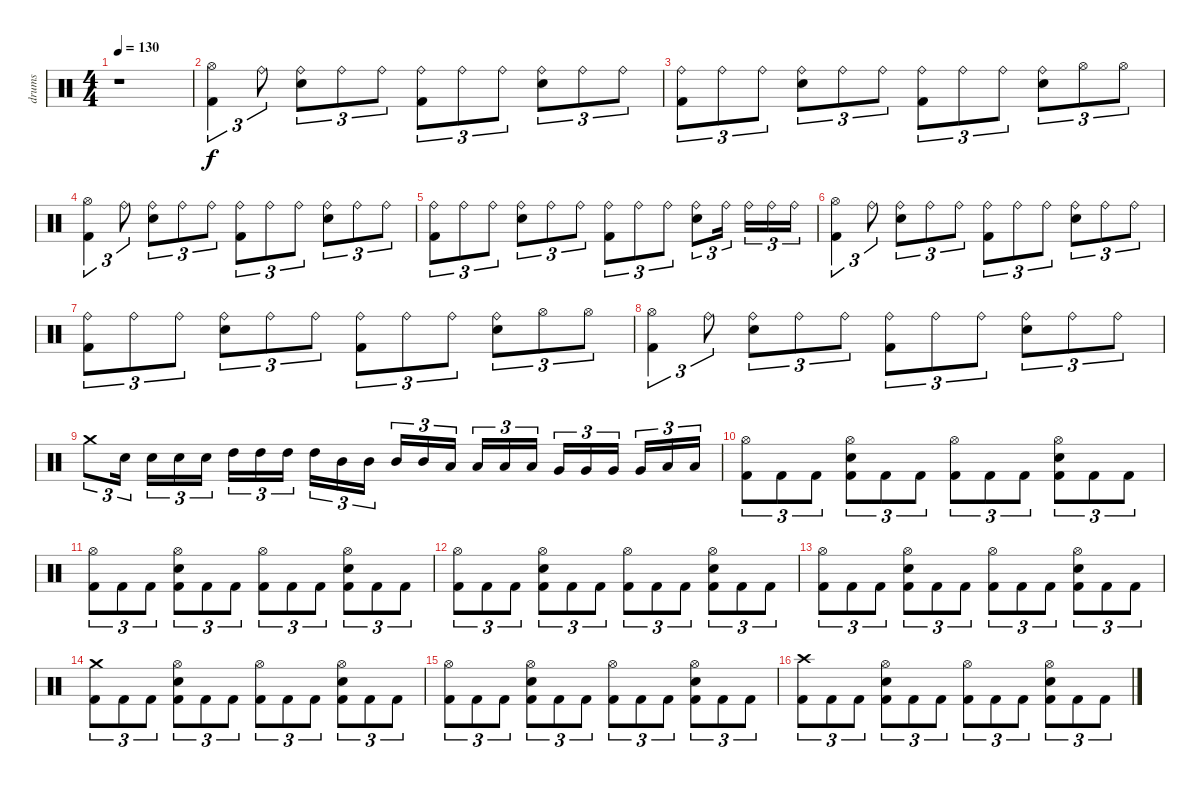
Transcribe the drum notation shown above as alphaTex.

\track ("drums" "drums") {instrument percussion}
\staff {score}
\articulation defaults
\ts (4 4)
\tempo 130
\clef neutral
\ks c
r.1{dy f} |
("Hi-Hat (open)" "Kick (hit) 2").4{tu (3 2)} "Ride (bell)".8{tu (3 2)} ("Ride (bell)" "Electric Snare (hit)").8{tu (3 2)} "Ride (bell)".8{tu (3 2)} "Ride (bell)".8{tu (3 2)} ("Ride (bell)" "Kick (hit) 2").8{tu (3 2)} "Ride (bell)".8{tu (3 2)} "Ride (bell)".8{tu (3 2)} ("Ride (bell)" "Electric Snare (hit)").8{tu (3 2)} "Ride (bell)".8{tu (3 2)} "Ride (bell)".8{tu (3 2)} |
("Ride (bell)" "Kick (hit) 2").8{tu (3 2)} "Ride (bell)".8{tu (3 2)} "Ride (bell)".8{tu (3 2)} ("Ride (bell)" "Electric Snare (hit)").8{tu (3 2)} "Ride (bell)".8{tu (3 2)} "Ride (bell)".8{tu (3 2)} ("Ride (bell)" "Kick (hit) 2").8{tu (3 2)} "Ride (bell)".8{tu (3 2)} "Ride (bell)".8{tu (3 2)} ("Ride (bell)" "Electric Snare (hit)").8{tu (3 2)} "Hi-Hat (open)".8{tu (3 2)} "Hi-Hat (open)".8{tu (3 2)} |
("Hi-Hat (open)" "Kick (hit) 2").4{tu (3 2)} "Ride (bell)".8{tu (3 2)} ("Ride (bell)" "Electric Snare (hit)").8{tu (3 2)} "Ride (bell)".8{tu (3 2)} "Ride (bell)".8{tu (3 2)} ("Ride (bell)" "Kick (hit) 2").8{tu (3 2)} "Ride (bell)".8{tu (3 2)} "Ride (bell)".8{tu (3 2)} ("Ride (bell)" "Electric Snare (hit)").8{tu (3 2)} "Ride (bell)".8{tu (3 2)} "Ride (bell)".8{tu (3 2)} |
("Ride (bell)" "Kick (hit) 2").8{tu (3 2)} "Ride (bell)".8{tu (3 2)} "Ride (bell)".8{tu (3 2)} ("Ride (bell)" "Electric Snare (hit)").8{tu (3 2)} "Ride (bell)".8{tu (3 2)} "Ride (bell)".8{tu (3 2)} ("Ride (bell)" "Kick (hit) 2").8{tu (3 2)} "Ride (bell)".8{tu (3 2)} "Ride (bell)".8{tu (3 2)} ("Ride (bell)" "Electric Snare (hit)").8{tu (3 2)} "Ride (bell)".16{tu (3 2)} "Ride (bell)".16{tu (3 2)} "Ride (bell)".16{tu (3 2)} "Ride (bell)".16{tu (3 2)} |
("Hi-Hat (open)" "Kick (hit) 2").4{tu (3 2)} "Ride (bell)".8{tu (3 2)} ("Ride (bell)" "Electric Snare (hit)").8{tu (3 2)} "Ride (bell)".8{tu (3 2)} "Ride (bell)".8{tu (3 2)} ("Ride (bell)" "Kick (hit) 2").8{tu (3 2)} "Ride (bell)".8{tu (3 2)} "Ride (bell)".8{tu (3 2)} ("Ride (bell)" "Electric Snare (hit)").8{tu (3 2)} "Ride (bell)".8{tu (3 2)} "Ride (bell)".8{tu (3 2)} |
("Ride (bell)" "Kick (hit) 2").8{tu (3 2)} "Ride (bell)".8{tu (3 2)} "Ride (bell)".8{tu (3 2)} ("Ride (bell)" "Electric Snare (hit)").8{tu (3 2)} "Ride (bell)".8{tu (3 2)} "Ride (bell)".8{tu (3 2)} ("Ride (bell)" "Kick (hit) 2").8{tu (3 2)} "Ride (bell)".8{tu (3 2)} "Ride (bell)".8{tu (3 2)} ("Ride (bell)" "Electric Snare (hit)").8{tu (3 2)} "Hi-Hat (open)".8{tu (3 2)} "Hi-Hat (open)".8{tu (3 2)} |
("Hi-Hat (open)" "Kick (hit) 2").4{tu (3 2)} "Ride (bell)".8{tu (3 2)} ("Ride (bell)" "Electric Snare (hit)").8{tu (3 2)} "Ride (bell)".8{tu (3 2)} "Ride (bell)".8{tu (3 2)} ("Ride (bell)" "Kick (hit) 2").8{tu (3 2)} "Ride (bell)".8{tu (3 2)} "Ride (bell)".8{tu (3 2)} ("Ride (bell)" "Electric Snare (hit)").8{tu (3 2)} "Ride (bell)".8{tu (3 2)} "Ride (bell)".8{tu (3 2)} |
"Crash medium (hit)".8{tu (3 2)} "Electric Snare (hit)".16{tu (3 2)} "Electric Snare (hit)".16{tu (3 2)} "Electric Snare (hit)".16{tu (3 2)} "Electric Snare (hit)".16{tu (3 2)} "High Tom (hit)".16{tu (3 2)} "High Tom (hit)".16{tu (3 2)} "High Tom (hit)".16{tu (3 2)} "High Tom (hit)".16{tu (3 2)} "Mid Tom (hit)".16{tu (3 2)} "Mid Tom (hit)".16{tu (3 2)} "Mid Tom (hit)".16{tu (3 2)} "Mid Tom (hit)".16{tu (3 2)} "Low Tom (hit)".16{tu (3 2)} "Low Tom (hit)".16{tu (3 2)} "Low Tom (hit)".16{tu (3 2)} "Low Tom (hit)".16{tu (3 2)} "Very Low Tom (hit)".16{tu (3 2)} "Very Low Tom (hit)".16{tu (3 2)} "Very Low Tom (hit)".16{tu (3 2)} "Very Low Tom (hit)".16{tu (3 2)} "Low Floor Tom (hit)".16{tu (3 2)} "Low Floor Tom (hit)".16{tu (3 2)} |
("Hi-Hat (open)" "Kick (hit) 2").8{tu (3 2)} "Kick (hit) 2".8{tu (3 2)} "Kick (hit) 2".8{tu (3 2)} ("Hi-Hat (open)" "Electric Snare (hit)" "Kick (hit) 2").8{tu (3 2)} "Kick (hit) 2".8{tu (3 2)} "Kick (hit) 2".8{tu (3 2)} ("Hi-Hat (open)" "Kick (hit) 2").8{tu (3 2)} "Kick (hit) 2".8{tu (3 2)} "Kick (hit) 2".8{tu (3 2)} ("Hi-Hat (open)" "Electric Snare (hit)" "Kick (hit) 2").8{tu (3 2)} "Kick (hit) 2".8{tu (3 2)} "Kick (hit) 2".8{tu (3 2)} |
("Hi-Hat (open)" "Kick (hit) 2").8{tu (3 2)} "Kick (hit) 2".8{tu (3 2)} "Kick (hit) 2".8{tu (3 2)} ("Hi-Hat (open)" "Electric Snare (hit)" "Kick (hit) 2").8{tu (3 2)} "Kick (hit) 2".8{tu (3 2)} "Kick (hit) 2".8{tu (3 2)} ("Hi-Hat (open)" "Kick (hit) 2").8{tu (3 2)} "Kick (hit) 2".8{tu (3 2)} "Kick (hit) 2".8{tu (3 2)} ("Hi-Hat (open)" "Electric Snare (hit)" "Kick (hit) 2").8{tu (3 2)} "Kick (hit) 2".8{tu (3 2)} "Kick (hit) 2".8{tu (3 2)} |
("Hi-Hat (open)" "Kick (hit) 2").8{tu (3 2)} "Kick (hit) 2".8{tu (3 2)} "Kick (hit) 2".8{tu (3 2)} ("Hi-Hat (open)" "Electric Snare (hit)" "Kick (hit) 2").8{tu (3 2)} "Kick (hit) 2".8{tu (3 2)} "Kick (hit) 2".8{tu (3 2)} ("Hi-Hat (open)" "Kick (hit) 2").8{tu (3 2)} "Kick (hit) 2".8{tu (3 2)} "Kick (hit) 2".8{tu (3 2)} ("Hi-Hat (open)" "Electric Snare (hit)" "Kick (hit) 2").8{tu (3 2)} "Kick (hit) 2".8{tu (3 2)} "Kick (hit) 2".8{tu (3 2)} |
("Hi-Hat (open)" "Kick (hit) 2").8{tu (3 2)} "Kick (hit) 2".8{tu (3 2)} "Kick (hit) 2".8{tu (3 2)} ("Hi-Hat (open)" "Electric Snare (hit)" "Kick (hit) 2").8{tu (3 2)} "Kick (hit) 2".8{tu (3 2)} "Kick (hit) 2".8{tu (3 2)} ("Hi-Hat (open)" "Kick (hit) 2").8{tu (3 2)} "Kick (hit) 2".8{tu (3 2)} "Kick (hit) 2".8{tu (3 2)} ("Hi-Hat (open)" "Electric Snare (hit)" "Kick (hit) 2").8{tu (3 2)} "Kick (hit) 2".8{tu (3 2)} "Kick (hit) 2".8{tu (3 2)} |
("Crash medium (hit)" "Kick (hit) 2").8{tu (3 2)} "Kick (hit) 2".8{tu (3 2)} "Kick (hit) 2".8{tu (3 2)} ("Hi-Hat (open)" "Electric Snare (hit)" "Kick (hit) 2").8{tu (3 2)} "Kick (hit) 2".8{tu (3 2)} "Kick (hit) 2".8{tu (3 2)} ("Hi-Hat (open)" "Kick (hit) 2").8{tu (3 2)} "Kick (hit) 2".8{tu (3 2)} "Kick (hit) 2".8{tu (3 2)} ("Hi-Hat (open)" "Electric Snare (hit)" "Kick (hit) 2").8{tu (3 2)} "Kick (hit) 2".8{tu (3 2)} "Kick (hit) 2".8{tu (3 2)} |
("Hi-Hat (open)" "Kick (hit) 2").8{tu (3 2)} "Kick (hit) 2".8{tu (3 2)} "Kick (hit) 2".8{tu (3 2)} ("Hi-Hat (open)" "Electric Snare (hit)" "Kick (hit) 2").8{tu (3 2)} "Kick (hit) 2".8{tu (3 2)} "Kick (hit) 2".8{tu (3 2)} ("Hi-Hat (open)" "Kick (hit) 2").8{tu (3 2)} "Kick (hit) 2".8{tu (3 2)} "Kick (hit) 2".8{tu (3 2)} ("Hi-Hat (open)" "Electric Snare (hit)" "Kick (hit) 2").8{tu (3 2)} "Kick (hit) 2".8{tu (3 2)} "Kick (hit) 2".8{tu (3 2)} |
("Crash high (hit)" "Kick (hit) 2").8{tu (3 2)} "Kick (hit) 2".8{tu (3 2)} "Kick (hit) 2".8{tu (3 2)} ("Hi-Hat (open)" "Electric Snare (hit)" "Kick (hit) 2").8{tu (3 2)} "Kick (hit) 2".8{tu (3 2)} "Kick (hit) 2".8{tu (3 2)} ("Hi-Hat (open)" "Kick (hit) 2").8{tu (3 2)} "Kick (hit) 2".8{tu (3 2)} "Kick (hit) 2".8{tu (3 2)} ("Hi-Hat (open)" "Electric Snare (hit)" "Kick (hit) 2").8{tu (3 2)} "Kick (hit) 2".8{tu (3 2)} "Kick (hit) 2".8{tu (3 2)}
